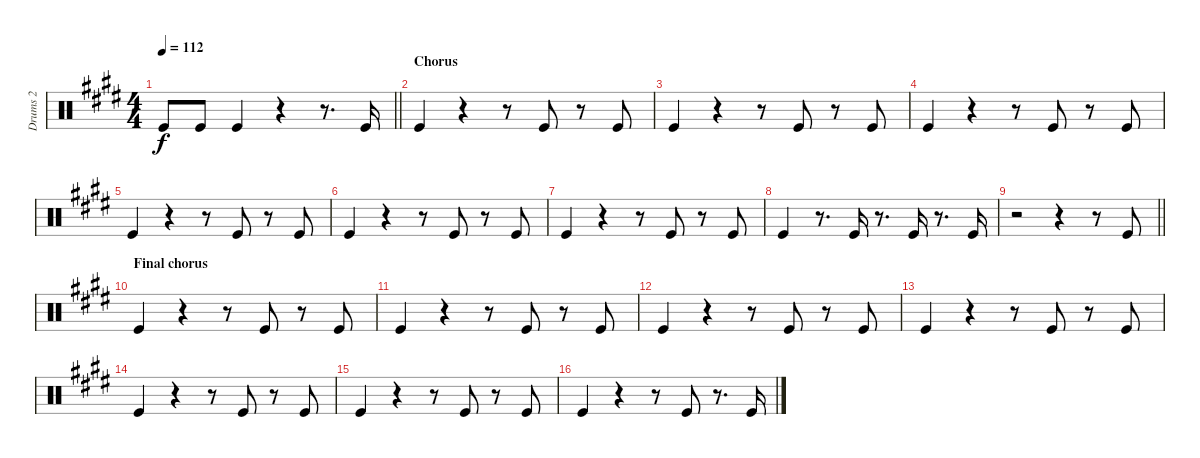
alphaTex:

\track ("Drums 2" "Drums 2") {instrument percussion}
\staff {score}
\articulation defaults
\ts (4 4)
\tempo 112
\clef neutral
\barLineRight lightlight
\ks e "Kick (hit)".8{dy f} "Kick (hit)".8 "Kick (hit)".4
r.4 r.8{d} "Kick (hit)".16 |
\section ("" "Chorus")
"Kick (hit)".4 r.4 r.8 "Kick (hit)".8 r.8 "Kick (hit)".8 |
"Kick (hit)".4 r.4 r.8 "Kick (hit)".8 r.8 "Kick (hit)".8 |
"Kick (hit)".4 r.4 r.8 "Kick (hit)".8 r.8 "Kick (hit)".8 |
"Kick (hit)".4 r.4 r.8 "Kick (hit)".8 r.8 "Kick (hit)".8 |
"Kick (hit)".4 r.4 r.8 "Kick (hit)".8 r.8 "Kick (hit)".8 |
"Kick (hit)".4 r.4 r.8 "Kick (hit)".8 r.8 "Kick (hit)".8 |
"Kick (hit)".4 r.8{d} "Kick (hit)".16 r.8{d} "Kick (hit)".16 r.8{d} "Kick (hit)".16 |
\barLineRight lightlight
r.2 r.4 r.8 "Kick (hit)".8 |
\section ("" "Final chorus")
"Kick (hit)".4 r.4 r.8 "Kick (hit)".8 r.8 "Kick (hit)".8 |
"Kick (hit)".4 r.4 r.8 "Kick (hit)".8 r.8 "Kick (hit)".8 |
"Kick (hit)".4 r.4 r.8 "Kick (hit)".8 r.8 "Kick (hit)".8 |
"Kick (hit)".4 r.4 r.8 "Kick (hit)".8 r.8 "Kick (hit)".8 |
"Kick (hit)".4 r.4 r.8 "Kick (hit)".8 r.8 "Kick (hit)".8 |
"Kick (hit)".4 r.4 r.8 "Kick (hit)".8 r.8 "Kick (hit)".8 |
"Kick (hit)".4 r.4 r.8 "Kick (hit)".8 r.8{d} "Kick (hit)".16
